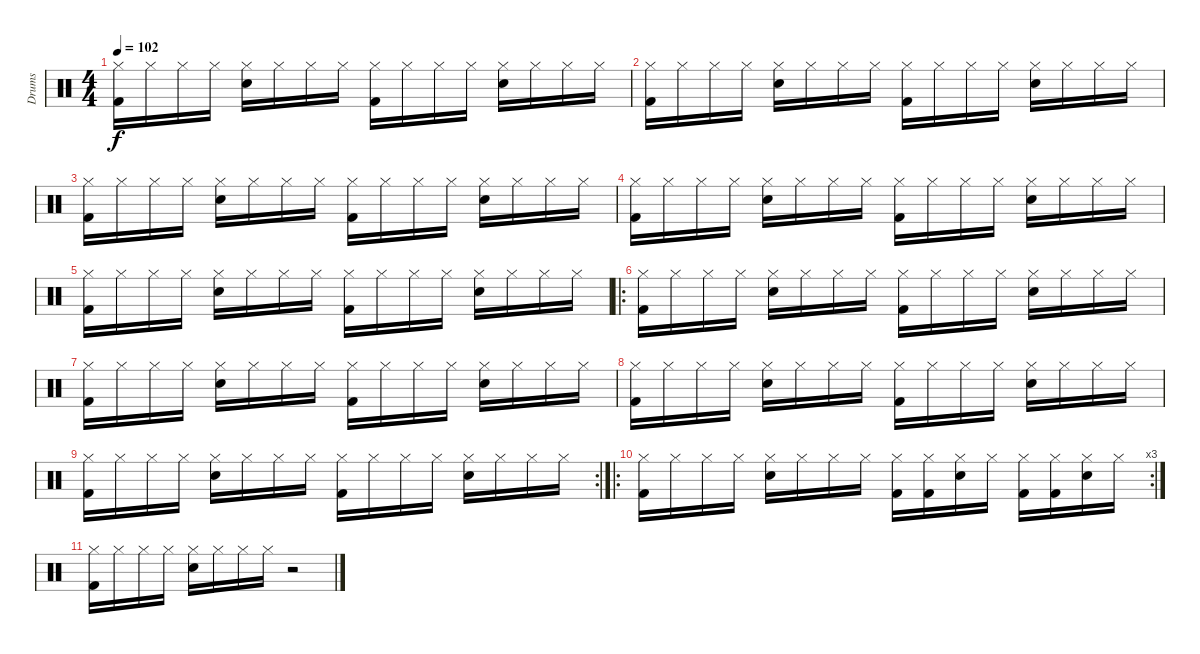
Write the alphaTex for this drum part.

\track ("Drums" "Drums") {instrument percussion}
\staff {score}
\articulation defaults
\ts (4 4)
\tempo 102
\clef neutral
\ks c
("Hi-Hat (closed)" "Kick (hit) 2").16{dy f} "Hi-Hat (closed)".16 "Hi-Hat (closed)".16 "Hi-Hat (closed)".16 ("Hi-Hat (closed)" "Electric Snare (hit)").16 "Hi-Hat (closed)".16 "Hi-Hat (closed)".16 "Hi-Hat (closed)".16 ("Hi-Hat (closed)" "Kick (hit) 2").16 "Hi-Hat (closed)".16 "Hi-Hat (closed)".16 "Hi-Hat (closed)".16 ("Hi-Hat (closed)" "Electric Snare (hit)").16 "Hi-Hat (closed)".16 "Hi-Hat (closed)".16 "Hi-Hat (closed)".16 |
("Hi-Hat (closed)" "Kick (hit) 2").16 "Hi-Hat (closed)".16 "Hi-Hat (closed)".16 "Hi-Hat (closed)".16 ("Hi-Hat (closed)" "Electric Snare (hit)").16 "Hi-Hat (closed)".16 "Hi-Hat (closed)".16 "Hi-Hat (closed)".16 ("Hi-Hat (closed)" "Kick (hit) 2").16 "Hi-Hat (closed)".16 "Hi-Hat (closed)".16 "Hi-Hat (closed)".16 ("Hi-Hat (closed)" "Electric Snare (hit)").16 "Hi-Hat (closed)".16 "Hi-Hat (closed)".16 "Hi-Hat (closed)".16 |
("Hi-Hat (closed)" "Kick (hit) 2").16 "Hi-Hat (closed)".16 "Hi-Hat (closed)".16 "Hi-Hat (closed)".16 ("Hi-Hat (closed)" "Electric Snare (hit)").16 "Hi-Hat (closed)".16 "Hi-Hat (closed)".16 "Hi-Hat (closed)".16 ("Hi-Hat (closed)" "Kick (hit) 2").16 "Hi-Hat (closed)".16 "Hi-Hat (closed)".16 "Hi-Hat (closed)".16 ("Hi-Hat (closed)" "Electric Snare (hit)").16 "Hi-Hat (closed)".16 "Hi-Hat (closed)".16 "Hi-Hat (closed)".16 |
("Hi-Hat (closed)" "Kick (hit) 2").16 "Hi-Hat (closed)".16 "Hi-Hat (closed)".16 "Hi-Hat (closed)".16 ("Hi-Hat (closed)" "Electric Snare (hit)").16 "Hi-Hat (closed)".16 "Hi-Hat (closed)".16 "Hi-Hat (closed)".16 ("Hi-Hat (closed)" "Kick (hit) 2").16 "Hi-Hat (closed)".16 "Hi-Hat (closed)".16 "Hi-Hat (closed)".16 ("Hi-Hat (closed)" "Electric Snare (hit)").16 "Hi-Hat (closed)".16 "Hi-Hat (closed)".16 "Hi-Hat (closed)".16 |
("Hi-Hat (closed)" "Kick (hit) 2").16 "Hi-Hat (closed)".16 "Hi-Hat (closed)".16 "Hi-Hat (closed)".16 ("Hi-Hat (closed)" "Electric Snare (hit)").16 "Hi-Hat (closed)".16 "Hi-Hat (closed)".16 "Hi-Hat (closed)".16 ("Hi-Hat (closed)" "Kick (hit) 2").16 "Hi-Hat (closed)".16 "Hi-Hat (closed)".16 "Hi-Hat (closed)".16 ("Hi-Hat (closed)" "Electric Snare (hit)").16 "Hi-Hat (closed)".16 "Hi-Hat (closed)".16 "Hi-Hat (closed)".16 |
\ro
("Hi-Hat (closed)" "Kick (hit) 2").16 "Hi-Hat (closed)".16 "Hi-Hat (closed)".16 "Hi-Hat (closed)".16 ("Hi-Hat (closed)" "Electric Snare (hit)").16 "Hi-Hat (closed)".16 "Hi-Hat (closed)".16 "Hi-Hat (closed)".16 ("Hi-Hat (closed)" "Kick (hit) 2").16 "Hi-Hat (closed)".16 "Hi-Hat (closed)".16 "Hi-Hat (closed)".16 ("Hi-Hat (closed)" "Electric Snare (hit)").16 "Hi-Hat (closed)".16 "Hi-Hat (closed)".16 "Hi-Hat (closed)".16 |
("Hi-Hat (closed)" "Kick (hit) 2").16 "Hi-Hat (closed)".16 "Hi-Hat (closed)".16 "Hi-Hat (closed)".16 ("Hi-Hat (closed)" "Electric Snare (hit)").16 "Hi-Hat (closed)".16 "Hi-Hat (closed)".16 "Hi-Hat (closed)".16 ("Hi-Hat (closed)" "Kick (hit) 2").16 "Hi-Hat (closed)".16 "Hi-Hat (closed)".16 "Hi-Hat (closed)".16 ("Hi-Hat (closed)" "Electric Snare (hit)").16 "Hi-Hat (closed)".16 "Hi-Hat (closed)".16 "Hi-Hat (closed)".16 |
("Hi-Hat (closed)" "Kick (hit) 2").16 "Hi-Hat (closed)".16 "Hi-Hat (closed)".16 "Hi-Hat (closed)".16 ("Hi-Hat (closed)" "Electric Snare (hit)").16 "Hi-Hat (closed)".16 "Hi-Hat (closed)".16 "Hi-Hat (closed)".16 ("Hi-Hat (closed)" "Kick (hit) 2").16 "Hi-Hat (closed)".16 "Hi-Hat (closed)".16 "Hi-Hat (closed)".16 ("Hi-Hat (closed)" "Electric Snare (hit)").16 "Hi-Hat (closed)".16 "Hi-Hat (closed)".16 "Hi-Hat (closed)".16 |
\rc 2
("Hi-Hat (closed)" "Kick (hit) 2").16 "Hi-Hat (closed)".16 "Hi-Hat (closed)".16 "Hi-Hat (closed)".16 ("Hi-Hat (closed)" "Electric Snare (hit)").16 "Hi-Hat (closed)".16 "Hi-Hat (closed)".16 "Hi-Hat (closed)".16 ("Hi-Hat (closed)" "Kick (hit) 2").16 "Hi-Hat (closed)".16 "Hi-Hat (closed)".16 "Hi-Hat (closed)".16 ("Hi-Hat (closed)" "Electric Snare (hit)").16 "Hi-Hat (closed)".16 "Hi-Hat (closed)".16 "Hi-Hat (closed)".16 |
\ro
\rc 3
("Hi-Hat (closed)" "Kick (hit) 2").16 "Hi-Hat (closed)".16 "Hi-Hat (closed)".16 "Hi-Hat (closed)".16 ("Hi-Hat (closed)" "Electric Snare (hit)").16 "Hi-Hat (closed)".16 "Hi-Hat (closed)".16 "Hi-Hat (closed)".16 ("Hi-Hat (closed)" "Kick (hit) 2").16 ("Hi-Hat (closed)" "Kick (hit) 2").16 ("Hi-Hat (closed)" "Electric Snare (hit)").16 "Hi-Hat (closed)".16 ("Hi-Hat (closed)" "Kick (hit) 2").16 ("Hi-Hat (closed)" "Kick (hit) 2").16 ("Hi-Hat (closed)" "Electric Snare (hit)").16 "Hi-Hat (closed)".16 |
("Hi-Hat (closed)" "Kick (hit) 2").16 "Hi-Hat (closed)".16 "Hi-Hat (closed)".16 "Hi-Hat (closed)".16 ("Hi-Hat (closed)" "Electric Snare (hit)").16 "Hi-Hat (closed)".16 "Hi-Hat (closed)".16 "Hi-Hat (closed)".16 r.2
